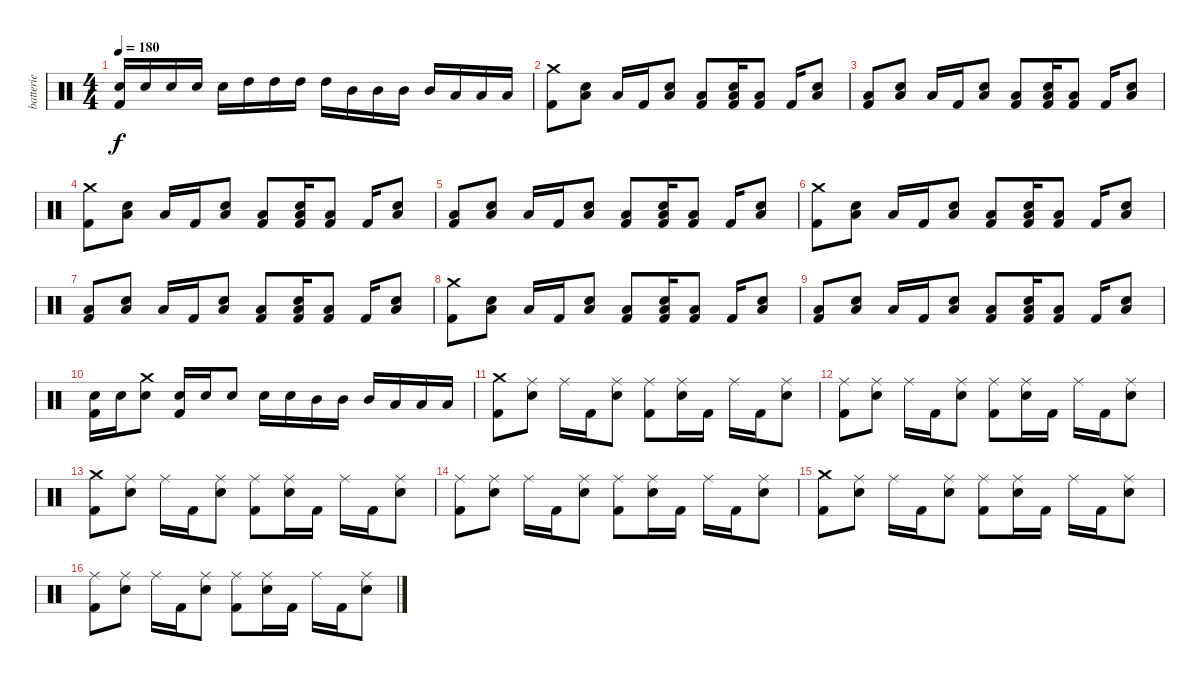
\track ("batterie" "batterie") {instrument percussion}
\staff {score}
\articulation defaults
\ts (4 4)
\tempo 180
\clef neutral
\ks c
("Electric Snare (hit)" "Kick (hit) 2").16{dy f} "Electric Snare (hit)".16 "Electric Snare (hit)".16 "Electric Snare (hit)".16 "Electric Snare (hit)".16 "High Tom (hit)".16 "High Tom (hit)".16 "High Tom (hit)".16 "High Tom (hit)".16 "Mid Tom (hit)".16 "Mid Tom (hit)".16 "Mid Tom (hit)".16 "Mid Tom (hit)".16 "Low Tom (hit)".16 "Low Tom (hit)".16 "Low Tom (hit)".16 |
("Crash medium (hit)" "Kick (hit) 2").8 ("Low Tom (hit)" "Electric Snare (hit)").8 "Low Tom (hit)".16 "Kick (hit) 2".16 ("Low Tom (hit)" "Electric Snare (hit)").8 ("Low Tom (hit)" "Kick (hit) 2").8 ("Low Tom (hit)" "Electric Snare (hit)" "Kick (hit) 2").16 ("Low Tom (hit)" "Kick (hit) 2").8 "Kick (hit) 2".16 ("Low Tom (hit)" "Electric Snare (hit)").8 |
("Low Tom (hit)" "Kick (hit) 2").8 ("Low Tom (hit)" "Electric Snare (hit)").8 "Low Tom (hit)".16 "Kick (hit) 2".16 ("Low Tom (hit)" "Electric Snare (hit)").8 ("Low Tom (hit)" "Kick (hit) 2").8 ("Low Tom (hit)" "Electric Snare (hit)" "Kick (hit) 2").16 ("Low Tom (hit)" "Kick (hit) 2").8 "Kick (hit) 2".16 ("Low Tom (hit)" "Electric Snare (hit)").8 |
("Crash medium (hit)" "Kick (hit) 2").8 ("Low Tom (hit)" "Electric Snare (hit)").8 "Low Tom (hit)".16 "Kick (hit) 2".16 ("Low Tom (hit)" "Electric Snare (hit)").8 ("Low Tom (hit)" "Kick (hit) 2").8 ("Low Tom (hit)" "Electric Snare (hit)" "Kick (hit) 2").16 ("Low Tom (hit)" "Kick (hit) 2").8 "Kick (hit) 2".16 ("Low Tom (hit)" "Electric Snare (hit)").8 |
("Low Tom (hit)" "Kick (hit) 2").8 ("Low Tom (hit)" "Electric Snare (hit)").8 "Low Tom (hit)".16 "Kick (hit) 2".16 ("Low Tom (hit)" "Electric Snare (hit)").8 ("Low Tom (hit)" "Kick (hit) 2").8 ("Low Tom (hit)" "Electric Snare (hit)" "Kick (hit) 2").16 ("Low Tom (hit)" "Kick (hit) 2").8 "Kick (hit) 2".16 ("Low Tom (hit)" "Electric Snare (hit)").8 |
("Crash medium (hit)" "Kick (hit) 2").8 ("Low Tom (hit)" "Electric Snare (hit)").8 "Low Tom (hit)".16 "Kick (hit) 2".16 ("Low Tom (hit)" "Electric Snare (hit)").8 ("Low Tom (hit)" "Kick (hit) 2").8 ("Low Tom (hit)" "Electric Snare (hit)" "Kick (hit) 2").16 ("Low Tom (hit)" "Kick (hit) 2").8 "Kick (hit) 2".16 ("Low Tom (hit)" "Electric Snare (hit)").8 |
("Low Tom (hit)" "Kick (hit) 2").8 ("Low Tom (hit)" "Electric Snare (hit)").8 "Low Tom (hit)".16 "Kick (hit) 2".16 ("Low Tom (hit)" "Electric Snare (hit)").8 ("Low Tom (hit)" "Kick (hit) 2").8 ("Low Tom (hit)" "Electric Snare (hit)" "Kick (hit) 2").16 ("Low Tom (hit)" "Kick (hit) 2").8 "Kick (hit) 2".16 ("Low Tom (hit)" "Electric Snare (hit)").8 |
("Crash medium (hit)" "Kick (hit) 2").8 ("Low Tom (hit)" "Electric Snare (hit)").8 "Low Tom (hit)".16 "Kick (hit) 2".16 ("Low Tom (hit)" "Electric Snare (hit)").8 ("Low Tom (hit)" "Kick (hit) 2").8 ("Low Tom (hit)" "Electric Snare (hit)" "Kick (hit) 2").16 ("Low Tom (hit)" "Kick (hit) 2").8 "Kick (hit) 2".16 ("Low Tom (hit)" "Electric Snare (hit)").8 |
("Low Tom (hit)" "Kick (hit) 2").8 ("Low Tom (hit)" "Electric Snare (hit)").8 "Low Tom (hit)".16 "Kick (hit) 2".16 ("Low Tom (hit)" "Electric Snare (hit)").8 ("Low Tom (hit)" "Kick (hit) 2").8 ("Low Tom (hit)" "Electric Snare (hit)" "Kick (hit) 2").16 ("Low Tom (hit)" "Kick (hit) 2").8 "Kick (hit) 2".16 ("Low Tom (hit)" "Electric Snare (hit)").8 |
("Electric Snare (hit)" "Kick (hit) 2").16 "Electric Snare (hit)".16 ("Crash medium (hit)" "Electric Snare (hit)").8 ("Electric Snare (hit)" "Kick (hit) 2").16 "Electric Snare (hit)".16 "Electric Snare (hit)".8 "Electric Snare (hit)".16 "Electric Snare (hit)".16 "Mid Tom (hit)".16 "Mid Tom (hit)".16 "Mid Tom (hit)".16 "Low Tom (hit)".16 "Low Tom (hit)".16 "Low Tom (hit)".16 |
("Crash medium (hit)" "Kick (hit) 2").8 ("Ride (middle)" "Electric Snare (hit)").8 "Ride (middle)".16 "Kick (hit) 2".16 ("Ride (middle)" "Electric Snare (hit)").8 ("Ride (middle)" "Kick (hit) 2").8 ("Ride (middle)" "Electric Snare (hit)").16 "Kick (hit) 2".16 "Ride (middle)".16 "Kick (hit) 2".16 ("Ride (middle)" "Electric Snare (hit)").8 |
("Ride (middle)" "Kick (hit) 2").8 ("Ride (middle)" "Electric Snare (hit)").8 "Ride (middle)".16 "Kick (hit) 2".16 ("Ride (middle)" "Electric Snare (hit)").8 ("Ride (middle)" "Kick (hit) 2").8 ("Ride (middle)" "Electric Snare (hit)").16 "Kick (hit) 2".16 "Ride (middle)".16 "Kick (hit) 2".16 ("Ride (middle)" "Electric Snare (hit)").8 |
("Crash medium (hit)" "Kick (hit) 2").8 ("Ride (middle)" "Electric Snare (hit)").8 "Ride (middle)".16 "Kick (hit) 2".16 ("Ride (middle)" "Electric Snare (hit)").8 ("Ride (middle)" "Kick (hit) 2").8 ("Ride (middle)" "Electric Snare (hit)").16 "Kick (hit) 2".16 "Ride (middle)".16 "Kick (hit) 2".16 ("Ride (middle)" "Electric Snare (hit)").8 |
("Ride (middle)" "Kick (hit) 2").8 ("Ride (middle)" "Electric Snare (hit)").8 "Ride (middle)".16 "Kick (hit) 2".16 ("Ride (middle)" "Electric Snare (hit)").8 ("Ride (middle)" "Kick (hit) 2").8 ("Ride (middle)" "Electric Snare (hit)").16 "Kick (hit) 2".16 "Ride (middle)".16 "Kick (hit) 2".16 ("Ride (middle)" "Electric Snare (hit)").8 |
("Crash medium (hit)" "Kick (hit) 2").8 ("Ride (middle)" "Electric Snare (hit)").8 "Ride (middle)".16 "Kick (hit) 2".16 ("Ride (middle)" "Electric Snare (hit)").8 ("Ride (middle)" "Kick (hit) 2").8 ("Ride (middle)" "Electric Snare (hit)").16 "Kick (hit) 2".16 "Ride (middle)".16 "Kick (hit) 2".16 ("Ride (middle)" "Electric Snare (hit)").8 |
("Ride (middle)" "Kick (hit) 2").8 ("Ride (middle)" "Electric Snare (hit)").8 "Ride (middle)".16 "Kick (hit) 2".16 ("Ride (middle)" "Electric Snare (hit)").8 ("Ride (middle)" "Kick (hit) 2").8 ("Ride (middle)" "Electric Snare (hit)").16 "Kick (hit) 2".16 "Ride (middle)".16 "Kick (hit) 2".16 ("Ride (middle)" "Electric Snare (hit)").8
